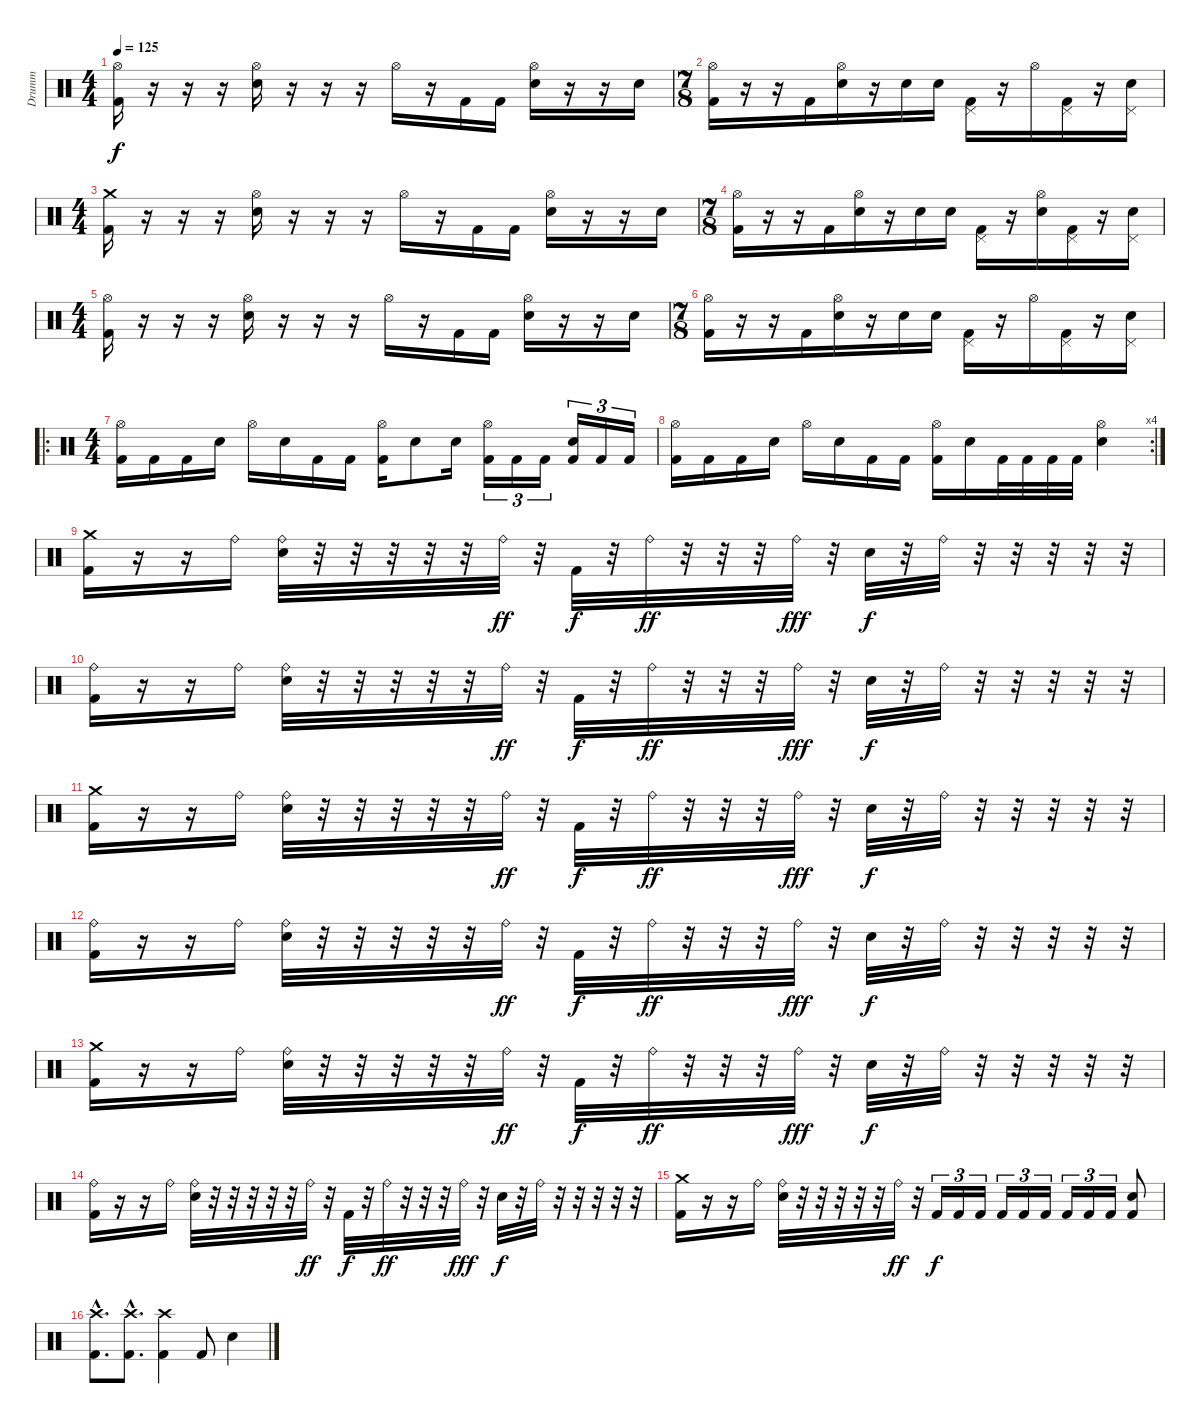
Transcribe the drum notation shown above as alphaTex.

\track ("Drumm" "Drumm") {instrument percussion}
\staff {score}
\articulation defaults
\ts (4 4)
\tempo 125
\clef neutral
\ks c
("Hi-Hat (open)" "Kick (hit) 2").16{dy f} r.16 r.16 r.16 ("Hi-Hat (open)" "Electric Snare (hit)").16 r.16 r.16 r.16 "Hi-Hat (open)".16 r.16 "Kick (hit) 2".16 "Kick (hit) 2".16 ("Hi-Hat (open)" "Electric Snare (hit)").16 r.16 r.16 "Electric Snare (hit)".16 |
\ts (7 8)
("Hi-Hat (open)" "Kick (hit) 2").16 r.16 r.16 "Kick (hit) 2".16 ("Hi-Hat (open)" "Electric Snare (hit)").16 r.16 "Electric Snare (hit)".16 "Electric Snare (hit)".16 ("Pedal Hi-Hat (hit)" "Kick (hit) 2").16 r.16 "Hi-Hat (open)".16 ("Pedal Hi-Hat (hit)" "Kick (hit) 2").16 r.16 ("Pedal Hi-Hat (hit)" "Electric Snare (hit)").16 |
\ts (4 4)
("Crash medium (hit)" "Kick (hit) 2").16 r.16 r.16 r.16 ("Hi-Hat (open)" "Electric Snare (hit)").16 r.16 r.16 r.16 "Hi-Hat (open)".16 r.16 "Kick (hit) 2".16 "Kick (hit) 2".16 ("Hi-Hat (open)" "Electric Snare (hit)").16 r.16 r.16 "Electric Snare (hit)".16 |
\ts (7 8)
("Hi-Hat (open)" "Kick (hit) 2").16 r.16 r.16 "Kick (hit) 2".16 ("Hi-Hat (open)" "Electric Snare (hit)").16 r.16 "Electric Snare (hit)".16 "Electric Snare (hit)".16 ("Pedal Hi-Hat (hit)" "Kick (hit) 2").16 r.16 ("Hi-Hat (open)" "Electric Snare (hit)").16 ("Pedal Hi-Hat (hit)" "Kick (hit) 2").16 r.16 ("Pedal Hi-Hat (hit)" "Electric Snare (hit)").16 |
\ts (4 4)
("Hi-Hat (open)" "Kick (hit) 2").16 r.16 r.16 r.16 ("Hi-Hat (open)" "Electric Snare (hit)").16 r.16 r.16 r.16 "Hi-Hat (open)".16 r.16 "Kick (hit) 2".16 "Kick (hit) 2".16 ("Hi-Hat (open)" "Electric Snare (hit)").16 r.16 r.16 "Electric Snare (hit)".16 |
\ts (7 8)
("Hi-Hat (open)" "Kick (hit) 2").16 r.16 r.16 "Kick (hit) 2".16 ("Hi-Hat (open)" "Electric Snare (hit)").16 r.16 "Electric Snare (hit)".16 "Electric Snare (hit)".16 ("Pedal Hi-Hat (hit)" "Kick (hit) 2").16 r.16 "Hi-Hat (open)".16 ("Pedal Hi-Hat (hit)" "Kick (hit) 2").16 r.16 ("Pedal Hi-Hat (hit)" "Electric Snare (hit)").16 |
\ro
\ts (4 4)
("Hi-Hat (open)" "Kick (hit) 2").16 "Kick (hit) 2".16 "Kick (hit) 2".16 "Electric Snare (hit)".16 "Hi-Hat (open)".16 "Electric Snare (hit)".16 "Kick (hit) 2".16 "Kick (hit) 2".16 ("Hi-Hat (open)" "Kick (hit) 2").16 "Electric Snare (hit)".8 "Electric Snare (hit)".16 ("Hi-Hat (open)" "Kick (hit) 2").16{tu (3 2)} "Kick (hit) 2".16{tu (3 2)} "Kick (hit) 2".16{tu (3 2)} ("Electric Snare (hit)" "Kick (hit) 2").16{tu (3 2)} "Kick (hit) 2".16{tu (3 2)} "Kick (hit) 2".16{tu (3 2)} |
\rc 4
("Hi-Hat (open)" "Kick (hit) 2").16 "Kick (hit) 2".16 "Kick (hit) 2".16 "Electric Snare (hit)".16 "Hi-Hat (open)".16 "Electric Snare (hit)".16 "Kick (hit) 2".16 "Kick (hit) 2".16 ("Hi-Hat (open)" "Kick (hit) 2").16 "Electric Snare (hit)".16 "Kick (hit) 2".32 "Kick (hit) 2".32 "Kick (hit) 2".32 "Kick (hit) 2".32 ("Hi-Hat (open)" "Electric Snare (hit)").4 |
("Crash medium (hit)" "Kick (hit) 2").16 r.16 r.16 "Ride (bell)".16 ("Ride (bell)" "Electric Snare (hit)").32 r.32 r.32 r.32 r.32 r.32 "Ride (bell)".32{dy ff} r.32 "Kick (hit) 2".32{dy f} r.32 "Ride (bell)".32{dy ff} r.32 r.32 r.32 "Ride (bell)".32{dy fff} r.32 "Electric Snare (hit)".32{dy f} r.32 "Ride (bell)".32 r.32 r.32 r.32 r.32 r.32 |
("Ride (bell)" "Kick (hit) 2").16 r.16 r.16 "Ride (bell)".16 ("Ride (bell)" "Electric Snare (hit)").32 r.32 r.32 r.32 r.32 r.32 "Ride (bell)".32{dy ff} r.32 "Kick (hit) 2".32{dy f} r.32 "Ride (bell)".32{dy ff} r.32 r.32 r.32 "Ride (bell)".32{dy fff} r.32 "Electric Snare (hit)".32{dy f} r.32 "Ride (bell)".32 r.32 r.32 r.32 r.32 r.32 |
("Crash medium (hit)" "Kick (hit) 2").16 r.16 r.16 "Ride (bell)".16 ("Ride (bell)" "Electric Snare (hit)").32 r.32 r.32 r.32 r.32 r.32 "Ride (bell)".32{dy ff} r.32 "Kick (hit) 2".32{dy f} r.32 "Ride (bell)".32{dy ff} r.32 r.32 r.32 "Ride (bell)".32{dy fff} r.32 "Electric Snare (hit)".32{dy f} r.32 "Ride (bell)".32 r.32 r.32 r.32 r.32 r.32 |
("Ride (bell)" "Kick (hit) 2").16 r.16 r.16 "Ride (bell)".16 ("Ride (bell)" "Electric Snare (hit)").32 r.32 r.32 r.32 r.32 r.32 "Ride (bell)".32{dy ff} r.32 "Kick (hit) 2".32{dy f} r.32 "Ride (bell)".32{dy ff} r.32 r.32 r.32 "Ride (bell)".32{dy fff} r.32 "Electric Snare (hit)".32{dy f} r.32 "Ride (bell)".32 r.32 r.32 r.32 r.32 r.32 |
("Crash medium (hit)" "Kick (hit) 2").16 r.16 r.16 "Ride (bell)".16 ("Ride (bell)" "Electric Snare (hit)").32 r.32 r.32 r.32 r.32 r.32 "Ride (bell)".32{dy ff} r.32 "Kick (hit) 2".32{dy f} r.32 "Ride (bell)".32{dy ff} r.32 r.32 r.32 "Ride (bell)".32{dy fff} r.32 "Electric Snare (hit)".32{dy f} r.32 "Ride (bell)".32 r.32 r.32 r.32 r.32 r.32 |
("Ride (bell)" "Kick (hit) 2").16 r.16 r.16 "Ride (bell)".16 ("Ride (bell)" "Electric Snare (hit)").32 r.32 r.32 r.32 r.32 r.32 "Ride (bell)".32{dy ff} r.32 "Kick (hit) 2".32{dy f} r.32 "Ride (bell)".32{dy ff} r.32 r.32 r.32 "Ride (bell)".32{dy fff} r.32 "Electric Snare (hit)".32{dy f} r.32 "Ride (bell)".32 r.32 r.32 r.32 r.32 r.32 |
("Crash medium (hit)" "Kick (hit) 2").16 r.16 r.16 "Ride (bell)".16 ("Ride (bell)" "Electric Snare (hit)").32 r.32 r.32 r.32 r.32 r.32 "Ride (bell)".32{dy ff} r.32 "Kick (hit) 2".16{tu (3 2) dy f} "Kick (hit) 2".16{tu (3 2)} "Kick (hit) 2".16{tu (3 2)} "Kick (hit) 2".16{tu (3 2)} "Kick (hit) 2".16{tu (3 2)} "Kick (hit) 2".16{tu (3 2)} "Kick (hit) 2".16{tu (3 2)} "Kick (hit) 2".16{tu (3 2)} "Kick (hit) 2".16{tu (3 2)} ("Electric Snare (hit)" "Kick (hit) 2").8 |
("Crash high (hit)"{hac} "Kick (hit) 2"{hac}).8{d} ("Crash high (hit)"{hac} "Kick (hit) 2"{hac}).8{d} ("Crash high (hit)" "Kick (hit) 2").4 "Kick (hit) 2".8 "Electric Snare (hit)".4
